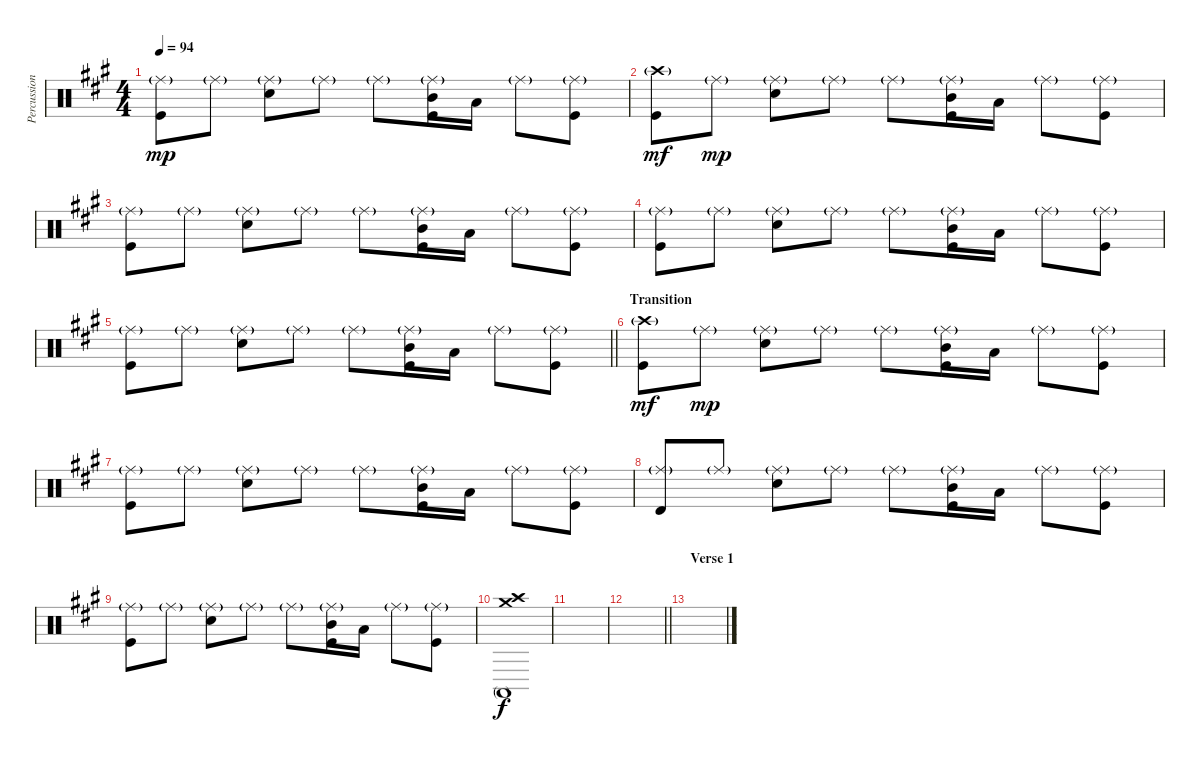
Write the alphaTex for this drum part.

\track ("Percussion" "Percussion") {instrument percussion}
\staff {score}
\articulation defaults
\ts (4 4)
\tempo 94
\clef neutral
\ks a
("Ride (middle)"{g} "Kick (hit)").8{dy mp} "Ride (middle)"{g}.8 ("Ride (middle)"{g} "Electric Snare (hit)").8 "Ride (middle)"{g}.8 "Ride (middle)"{g}.8 ("Ride (middle)"{g} "Mid Tom (hit)" "Kick (hit)").16 "Low Tom (hit)".16 "Ride (middle)"{g}.8 ("Ride (middle)"{g} "Kick (hit)").8 |
("Crash high (hit)"{g} "Kick (hit)").8{dy mf} "Ride (middle)"{g}.8{dy mp} ("Ride (middle)"{g} "Electric Snare (hit)").8 "Ride (middle)"{g}.8 "Ride (middle)"{g}.8 ("Ride (middle)"{g} "Mid Tom (hit)" "Kick (hit)").16 "Low Tom (hit)".16 "Ride (middle)"{g}.8 ("Ride (middle)"{g} "Kick (hit)").8 |
("Ride (middle)"{g} "Kick (hit)").8 "Ride (middle)"{g}.8 ("Ride (middle)"{g} "Electric Snare (hit)").8 "Ride (middle)"{g}.8 "Ride (middle)"{g}.8 ("Ride (middle)"{g} "Mid Tom (hit)" "Kick (hit)").16 "Low Tom (hit)".16 "Ride (middle)"{g}.8 ("Ride (middle)"{g} "Kick (hit)").8 |
("Ride (middle)"{g} "Kick (hit)").8 "Ride (middle)"{g}.8 ("Ride (middle)"{g} "Electric Snare (hit)").8 "Ride (middle)"{g}.8 "Ride (middle)"{g}.8 ("Ride (middle)"{g} "Mid Tom (hit)" "Kick (hit)").16 "Low Tom (hit)".16 "Ride (middle)"{g}.8 ("Ride (middle)"{g} "Kick (hit)").8 |
\barLineRight lightlight
("Ride (middle)"{g} "Kick (hit)").8 "Ride (middle)"{g}.8 ("Ride (middle)"{g} "Electric Snare (hit)").8 "Ride (middle)"{g}.8 "Ride (middle)"{g}.8 ("Ride (middle)"{g} "Mid Tom (hit)" "Kick (hit)").16 "Low Tom (hit)".16 "Ride (middle)"{g}.8 ("Ride (middle)"{g} "Kick (hit)").8 |
\section ("" "Transition")
("Crash high (hit)"{g} "Kick (hit)").8{dy mf} "Ride (middle)"{g}.8{dy mp} ("Ride (middle)"{g} "Electric Snare (hit)").8 "Ride (middle)"{g}.8 "Ride (middle)"{g}.8 ("Ride (middle)"{g} "Mid Tom (hit)" "Kick (hit)").16 "Low Tom (hit)".16 "Ride (middle)"{g}.8 ("Ride (middle)"{g} "Kick (hit)").8 |
("Ride (middle)"{g} "Kick (hit)").8 "Ride (middle)"{g}.8 ("Ride (middle)"{g} "Electric Snare (hit)").8 "Ride (middle)"{g}.8 "Ride (middle)"{g}.8 ("Ride (middle)"{g} "Mid Tom (hit)" "Kick (hit)").16 "Low Tom (hit)".16 "Ride (middle)"{g}.8 ("Ride (middle)"{g} "Kick (hit)").8 |
("Ride (middle)"{g} "Timbale high (hit)").8 "Ride (middle)"{g}.8 ("Ride (middle)"{g} "Electric Snare (hit)").8 "Ride (middle)"{g}.8 "Ride (middle)"{g}.8 ("Ride (middle)"{g} "Mid Tom (hit)" "Kick (hit)").16 "Low Tom (hit)".16 "Ride (middle)"{g}.8 ("Ride (middle)"{g} "Kick (hit)").8 |
("Ride (middle)"{g} "Kick (hit)").8 "Ride (middle)"{g}.8 ("Ride (middle)"{g} "Electric Snare (hit)").8 "Ride (middle)"{g}.8 "Ride (middle)"{g}.8 ("Ride (middle)"{g} "Mid Tom (hit)" "Kick (hit)").16 "Low Tom (hit)".16 "Ride (middle)"{g}.8 ("Ride (middle)"{g} "Kick (hit)").8 |
("Crash medium (hit)" "Splash (hit)" "Conga high (mute)" "Crash high (hit)").1{dy f} |
|
\barLineRight lightlight
|
\section ("" "Verse 1")
